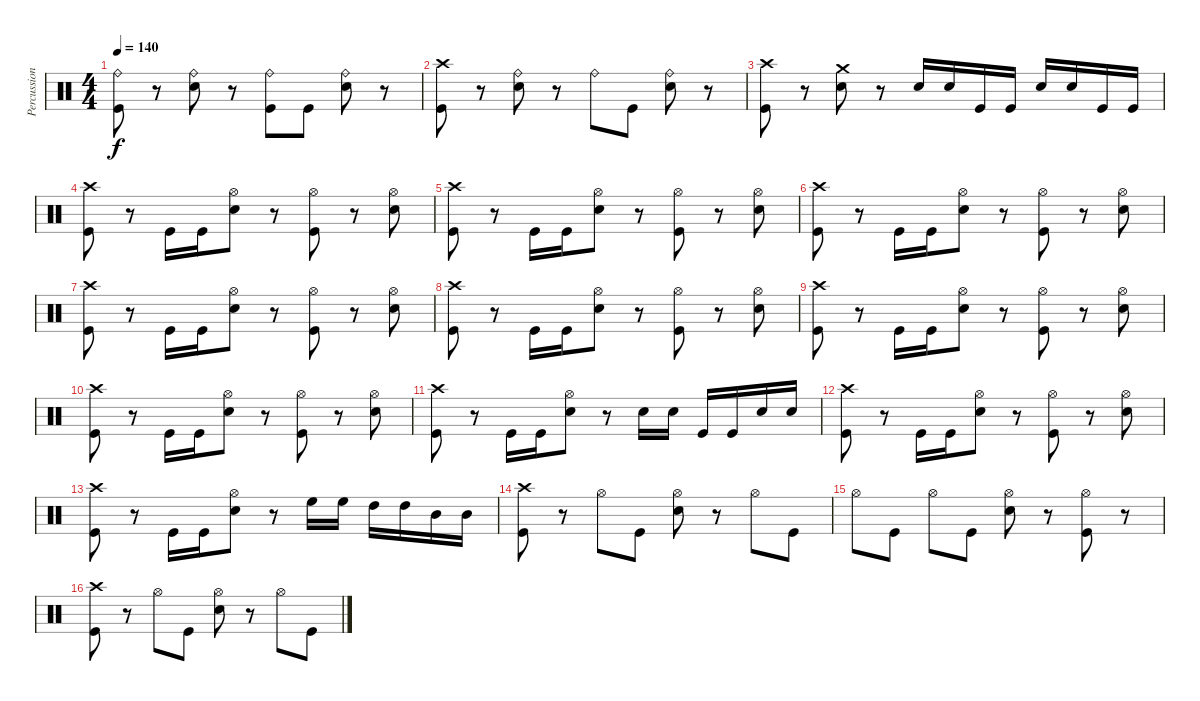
\track ("Percussion" "Percussion") {instrument percussion}
\staff {score}
\articulation defaults
\ts (4 4)
\tempo 140
\clef neutral
\ks c
("Ride (bell)" "Kick (hit)").8{dy f} r.8 ("Ride (bell)" "Electric Snare (hit)").8 r.8 ("Ride (bell)" "Kick (hit)").8 "Kick (hit)".8 ("Ride (bell)" "Electric Snare (hit)").8 r.8 |
("Crash high (hit)" "Kick (hit)").8 r.8 ("Ride (bell)" "Electric Snare (hit)").8 r.8 "Ride (bell)".8 "Kick (hit)".8 ("Ride (bell)" "Electric Snare (hit)").8 r.8 |
("Crash high (hit)" "Kick (hit)").8 r.8 ("Crash medium (hit)" "Electric Snare (hit)").8 r.8 "Electric Snare (hit)".16 "Electric Snare (hit)".16 "Kick (hit)".16 "Kick (hit)".16 "Electric Snare (hit)".16 "Electric Snare (hit)".16 "Kick (hit)".16 "Kick (hit)".16 |
("Crash high (hit)" "Kick (hit)").8 r.8 "Kick (hit)".16 "Kick (hit)".16 ("Hi-Hat (open)" "Electric Snare (hit)").8 r.8 ("Hi-Hat (open)" "Kick (hit)").8 r.8 ("Hi-Hat (open)" "Electric Snare (hit)").8 |
("Crash high (hit)" "Kick (hit)").8 r.8 "Kick (hit)".16 "Kick (hit)".16 ("Hi-Hat (open)" "Electric Snare (hit)").8 r.8 ("Hi-Hat (open)" "Kick (hit)").8 r.8 ("Hi-Hat (open)" "Electric Snare (hit)").8 |
("Crash high (hit)" "Kick (hit)").8 r.8 "Kick (hit)".16 "Kick (hit)".16 ("Hi-Hat (open)" "Electric Snare (hit)").8 r.8 ("Hi-Hat (open)" "Kick (hit)").8 r.8 ("Hi-Hat (open)" "Electric Snare (hit)").8 |
("Crash high (hit)" "Kick (hit)").8 r.8 "Kick (hit)".16 "Kick (hit)".16 ("Hi-Hat (open)" "Electric Snare (hit)").8 r.8 ("Hi-Hat (open)" "Kick (hit)").8 r.8 ("Hi-Hat (open)" "Electric Snare (hit)").8 |
("Crash high (hit)" "Kick (hit)").8 r.8 "Kick (hit)".16 "Kick (hit)".16 ("Hi-Hat (open)" "Electric Snare (hit)").8 r.8 ("Hi-Hat (open)" "Kick (hit)").8 r.8 ("Hi-Hat (open)" "Electric Snare (hit)").8 |
("Crash high (hit)" "Kick (hit)").8 r.8 "Kick (hit)".16 "Kick (hit)".16 ("Hi-Hat (open)" "Electric Snare (hit)").8 r.8 ("Hi-Hat (open)" "Kick (hit)").8 r.8 ("Hi-Hat (open)" "Electric Snare (hit)").8 |
("Crash high (hit)" "Kick (hit)").8 r.8 "Kick (hit)".16 "Kick (hit)".16 ("Hi-Hat (open)" "Electric Snare (hit)").8 r.8 ("Hi-Hat (open)" "Kick (hit)").8 r.8 ("Hi-Hat (open)" "Electric Snare (hit)").8 |
("Crash high (hit)" "Kick (hit)").8 r.8 "Kick (hit)".16 "Kick (hit)".16 ("Hi-Hat (open)" "Electric Snare (hit)").8 r.8 "Electric Snare (hit)".16 "Electric Snare (hit)".16 "Kick (hit)".16 "Kick (hit)".16 "Electric Snare (hit)".16 "Electric Snare (hit)".16 |
("Crash high (hit)" "Kick (hit)").8 r.8 "Kick (hit)".16 "Kick (hit)".16 ("Hi-Hat (open)" "Electric Snare (hit)").8 r.8 ("Hi-Hat (open)" "Kick (hit)").8 r.8 ("Hi-Hat (open)" "Electric Snare (hit)").8 |
("Crash high (hit)" "Kick (hit)").8 r.8 "Kick (hit)".16 "Kick (hit)".16 ("Hi-Hat (open)" "Electric Snare (hit)").8 r.8 "High Floor Tom (hit)".16 "High Floor Tom (hit)".16 "High Tom (hit)".16 "High Tom (hit)".16 "Mid Tom (hit)".16 "Mid Tom (hit)".16 |
("Crash high (hit)" "Kick (hit)").8 r.8 "Hi-Hat (open)".8 "Kick (hit)".8 ("Hi-Hat (open)" "Electric Snare (hit)").8 r.8 "Hi-Hat (open)".8 "Kick (hit)".8 |
"Hi-Hat (open)".8 "Kick (hit)".8 "Hi-Hat (open)".8 "Kick (hit)".8 ("Hi-Hat (open)" "Electric Snare (hit)").8 r.8 ("Hi-Hat (open)" "Kick (hit)").8 r.8 |
("Crash high (hit)" "Kick (hit)").8 r.8 "Hi-Hat (open)".8 "Kick (hit)".8 ("Hi-Hat (open)" "Electric Snare (hit)").8 r.8 "Hi-Hat (open)".8 "Kick (hit)".8
